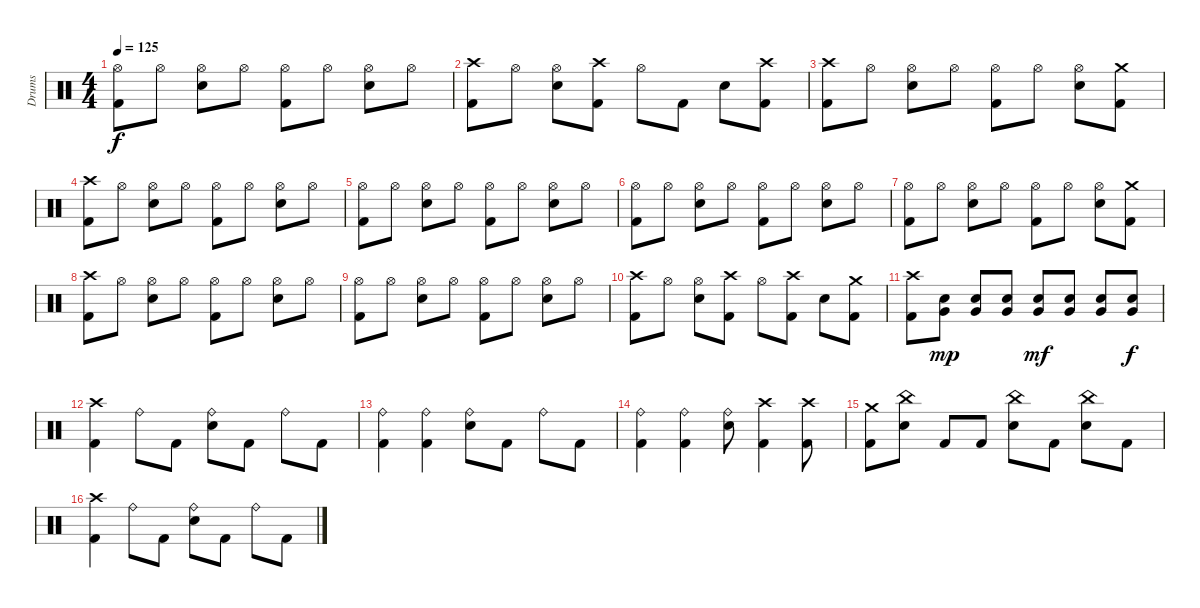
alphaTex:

\track ("Drums" "Drums") {instrument percussion}
\staff {score}
\articulation defaults
\ts (4 4)
\tempo 125
\clef neutral
\ks c
("Hi-Hat (open)" "Kick (hit) 2").8{dy f} "Hi-Hat (open)".8 ("Hi-Hat (open)" "Electric Snare (hit)").8 "Hi-Hat (open)".8 ("Hi-Hat (open)" "Kick (hit) 2").8 "Hi-Hat (open)".8 ("Hi-Hat (open)" "Electric Snare (hit)").8 "Hi-Hat (open)".8 |
("Crash high (hit)" "Kick (hit) 2").8 "Hi-Hat (open)".8 ("Hi-Hat (open)" "Electric Snare (hit)").8 ("Crash high (hit)" "Kick (hit) 2").8 "Hi-Hat (open)".8 "Kick (hit) 2".8 "Electric Snare (hit)".8 ("Crash high (hit)" "Kick (hit) 2").8 |
("Crash high (hit)" "Kick (hit) 2").8 "Hi-Hat (open)".8 ("Hi-Hat (open)" "Electric Snare (hit)").8 "Hi-Hat (open)".8 ("Hi-Hat (open)" "Kick (hit) 2").8 "Hi-Hat (open)".8 ("Hi-Hat (open)" "Electric Snare (hit)").8 ("Crash medium (hit)" "Kick (hit) 2").8 |
("Crash high (hit)" "Kick (hit) 2").8 "Hi-Hat (open)".8 ("Hi-Hat (open)" "Electric Snare (hit)").8 "Hi-Hat (open)".8 ("Hi-Hat (open)" "Kick (hit) 2").8 "Hi-Hat (open)".8 ("Hi-Hat (open)" "Electric Snare (hit)").8 "Hi-Hat (open)".8 |
("Hi-Hat (open)" "Kick (hit) 2").8 "Hi-Hat (open)".8 ("Hi-Hat (open)" "Electric Snare (hit)").8 "Hi-Hat (open)".8 ("Hi-Hat (open)" "Kick (hit) 2").8 "Hi-Hat (open)".8 ("Hi-Hat (open)" "Electric Snare (hit)").8 "Hi-Hat (open)".8 |
("Hi-Hat (open)" "Kick (hit) 2").8 "Hi-Hat (open)".8 ("Hi-Hat (open)" "Electric Snare (hit)").8 "Hi-Hat (open)".8 ("Hi-Hat (open)" "Kick (hit) 2").8 "Hi-Hat (open)".8 ("Hi-Hat (open)" "Electric Snare (hit)").8 "Hi-Hat (open)".8 |
("Hi-Hat (open)" "Kick (hit) 2").8 "Hi-Hat (open)".8 ("Hi-Hat (open)" "Electric Snare (hit)").8 "Hi-Hat (open)".8 ("Hi-Hat (open)" "Kick (hit) 2").8 "Hi-Hat (open)".8 ("Hi-Hat (open)" "Electric Snare (hit)").8 ("Crash medium (hit)" "Kick (hit) 2").8 |
("Crash high (hit)" "Kick (hit) 2").8 "Hi-Hat (open)".8 ("Hi-Hat (open)" "Electric Snare (hit)").8 "Hi-Hat (open)".8 ("Hi-Hat (open)" "Kick (hit) 2").8 "Hi-Hat (open)".8 ("Hi-Hat (open)" "Electric Snare (hit)").8 "Hi-Hat (open)".8 |
("Hi-Hat (open)" "Kick (hit) 2").8 "Hi-Hat (open)".8 ("Hi-Hat (open)" "Electric Snare (hit)").8 "Hi-Hat (open)".8 ("Hi-Hat (open)" "Kick (hit) 2").8 "Hi-Hat (open)".8 ("Hi-Hat (open)" "Electric Snare (hit)").8 "Hi-Hat (open)".8 |
("Crash high (hit)" "Kick (hit) 2").8 "Hi-Hat (open)".8 ("Hi-Hat (open)" "Electric Snare (hit)").8 ("Crash high (hit)" "Kick (hit) 2").8 "Hi-Hat (open)".8 ("Crash high (hit)" "Kick (hit) 2").8 "Electric Snare (hit)".8 ("Crash medium (hit)" "Kick (hit) 2").8 |
("Crash high (hit)" "Kick (hit) 2").8 ("Very Low Tom (hit)" "Electric Snare (hit)").8{dy mp} ("Very Low Tom (hit)" "Electric Snare (hit)").8 ("Very Low Tom (hit)" "Electric Snare (hit)").8 ("Very Low Tom (hit)" "Electric Snare (hit)").8{dy mf} ("Very Low Tom (hit)" "Electric Snare (hit)").8 ("Very Low Tom (hit)" "Electric Snare (hit)").8 ("Very Low Tom (hit)" "Electric Snare (hit)").8{dy f} |
("Crash high (hit)" "Kick (hit) 2").4 "Ride (bell)".8 "Kick (hit) 2".8 ("Ride (bell)" "Electric Snare (hit)").8 "Kick (hit) 2".8 "Ride (bell)".8 "Kick (hit) 2".8 |
("Ride (bell)" "Kick (hit) 2").4 ("Ride (bell)" "Kick (hit) 2").4 ("Ride (bell)" "Electric Snare (hit)").8 "Kick (hit) 2".8 "Ride (bell)".8 "Kick (hit) 2".8 |
("Ride (bell)" "Kick (hit) 2").4 ("Ride (bell)" "Kick (hit) 2").4 ("Ride (bell)" "Electric Snare (hit)").8 ("Crash high (hit)" "Kick (hit) 2").4 ("Crash high (hit)" "Kick (hit) 2").8 |
("Crash medium (hit)" "Kick (hit) 2").8 ("China (hit)" "Electric Snare (hit)").8 "Kick (hit) 2".8 "Kick (hit) 2".8 ("China (hit)" "Electric Snare (hit)").8 "Kick (hit) 2".8 ("China (hit)" "Electric Snare (hit)").8 "Kick (hit) 2".8 |
("Crash high (hit)" "Kick (hit) 2").4 "Ride (bell)".8 "Kick (hit) 2".8 ("Ride (bell)" "Electric Snare (hit)").8 "Kick (hit) 2".8 "Ride (bell)".8 "Kick (hit) 2".8
